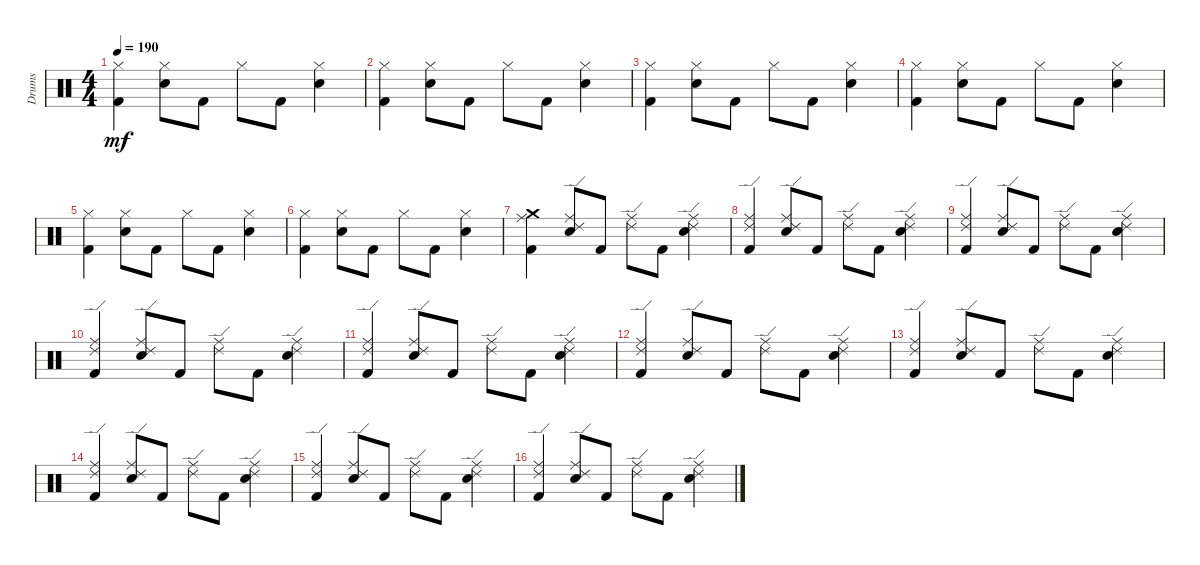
\track ("Drums" "Drums") {instrument percussion}
\staff {score}
\articulation defaults
\ts (4 4)
\tempo 190
\clef neutral
\ks c
("Hi-Hat (closed)" "Kick (hit) 2").4{dy mf} ("Hi-Hat (closed)" "Snare (hit) 2").8 "Kick (hit) 2".8 "Hi-Hat (closed)".8 "Kick (hit) 2".8 ("Hi-Hat (closed)" "Snare (hit) 2").4 |
("Hi-Hat (closed)" "Kick (hit) 2").4 ("Hi-Hat (closed)" "Snare (hit) 2").8 "Kick (hit) 2".8 "Hi-Hat (closed)".8 "Kick (hit) 2".8 ("Hi-Hat (closed)" "Snare (hit) 2").4 |
("Hi-Hat (closed)" "Kick (hit) 2").4 ("Hi-Hat (closed)" "Snare (hit) 2").8 "Kick (hit) 2".8 "Hi-Hat (closed)".8 "Kick (hit) 2".8 ("Hi-Hat (closed)" "Snare (hit) 2").4 |
("Hi-Hat (closed)" "Kick (hit) 2").4 ("Hi-Hat (closed)" "Snare (hit) 2").8 "Kick (hit) 2".8 "Hi-Hat (closed)".8 "Kick (hit) 2".8 ("Hi-Hat (closed)" "Snare (hit) 2").4 |
("Hi-Hat (closed)" "Kick (hit) 2").4 ("Hi-Hat (closed)" "Snare (hit) 2").8 "Kick (hit) 2".8 "Hi-Hat (closed)".8 "Kick (hit) 2".8 ("Hi-Hat (closed)" "Snare (hit) 2").4 |
("Hi-Hat (closed)" "Kick (hit) 2").4 ("Hi-Hat (closed)" "Snare (hit) 2").8 "Kick (hit) 2".8 "Hi-Hat (closed)".8 "Kick (hit) 2".8 ("Hi-Hat (closed)" "Snare (hit) 2").4 |
("Crash medium (hit)" "Ride (middle)" "Kick (hit) 2").4 ("Ride (edge) 2" "Ride (middle)" "Snare (hit) 2").8 "Kick (hit) 2".8 ("Ride (edge) 2" "Ride (middle)").8 "Kick (hit) 2".8 ("Ride (edge) 2" "Ride (middle)" "Snare (hit) 2").4 |
("Ride (edge) 2" "Ride (middle)" "Kick (hit) 2").4 ("Ride (edge) 2" "Ride (middle)" "Snare (hit) 2").8 "Kick (hit) 2".8 ("Ride (edge) 2" "Ride (middle)").8 "Kick (hit) 2".8 ("Ride (edge) 2" "Ride (middle)" "Snare (hit) 2").4 |
("Ride (edge) 2" "Ride (middle)" "Kick (hit) 2").4 ("Ride (edge) 2" "Ride (middle)" "Snare (hit) 2").8 "Kick (hit) 2".8 ("Ride (edge) 2" "Ride (middle)").8 "Kick (hit) 2".8 ("Ride (edge) 2" "Ride (middle)" "Snare (hit) 2").4 |
("Ride (edge) 2" "Ride (middle)" "Kick (hit) 2").4 ("Ride (edge) 2" "Ride (middle)" "Snare (hit) 2").8 "Kick (hit) 2".8 ("Ride (edge) 2" "Ride (middle)").8 "Kick (hit) 2".8 ("Ride (edge) 2" "Ride (middle)" "Snare (hit) 2").4 |
("Ride (edge) 2" "Ride (middle)" "Kick (hit) 2").4 ("Ride (edge) 2" "Ride (middle)" "Snare (hit) 2").8 "Kick (hit) 2".8 ("Ride (edge) 2" "Ride (middle)").8 "Kick (hit) 2".8 ("Ride (edge) 2" "Ride (middle)" "Snare (hit) 2").4 |
("Ride (edge) 2" "Ride (middle)" "Kick (hit) 2").4 ("Ride (edge) 2" "Ride (middle)" "Snare (hit) 2").8 "Kick (hit) 2".8 ("Ride (edge) 2" "Ride (middle)").8 "Kick (hit) 2".8 ("Ride (edge) 2" "Ride (middle)" "Snare (hit) 2").4 |
("Ride (edge) 2" "Ride (middle)" "Kick (hit) 2").4 ("Ride (edge) 2" "Ride (middle)" "Snare (hit) 2").8 "Kick (hit) 2".8 ("Ride (edge) 2" "Ride (middle)").8 "Kick (hit) 2".8 ("Ride (edge) 2" "Ride (middle)" "Snare (hit) 2").4 |
("Ride (edge) 2" "Ride (middle)" "Kick (hit) 2").4 ("Ride (edge) 2" "Ride (middle)" "Snare (hit) 2").8 "Kick (hit) 2".8 ("Ride (edge) 2" "Ride (middle)").8 "Kick (hit) 2".8 ("Ride (edge) 2" "Ride (middle)" "Snare (hit) 2").4 |
("Ride (edge) 2" "Ride (middle)" "Kick (hit) 2").4 ("Ride (edge) 2" "Ride (middle)" "Snare (hit) 2").8 "Kick (hit) 2".8 ("Ride (edge) 2" "Ride (middle)").8 "Kick (hit) 2".8 ("Ride (edge) 2" "Ride (middle)" "Snare (hit) 2").4 |
("Ride (edge) 2" "Ride (middle)" "Kick (hit) 2").4 ("Ride (edge) 2" "Ride (middle)" "Snare (hit) 2").8 "Kick (hit) 2".8 ("Ride (edge) 2" "Ride (middle)").8 "Kick (hit) 2".8 ("Ride (edge) 2" "Ride (middle)" "Snare (hit) 2").4
